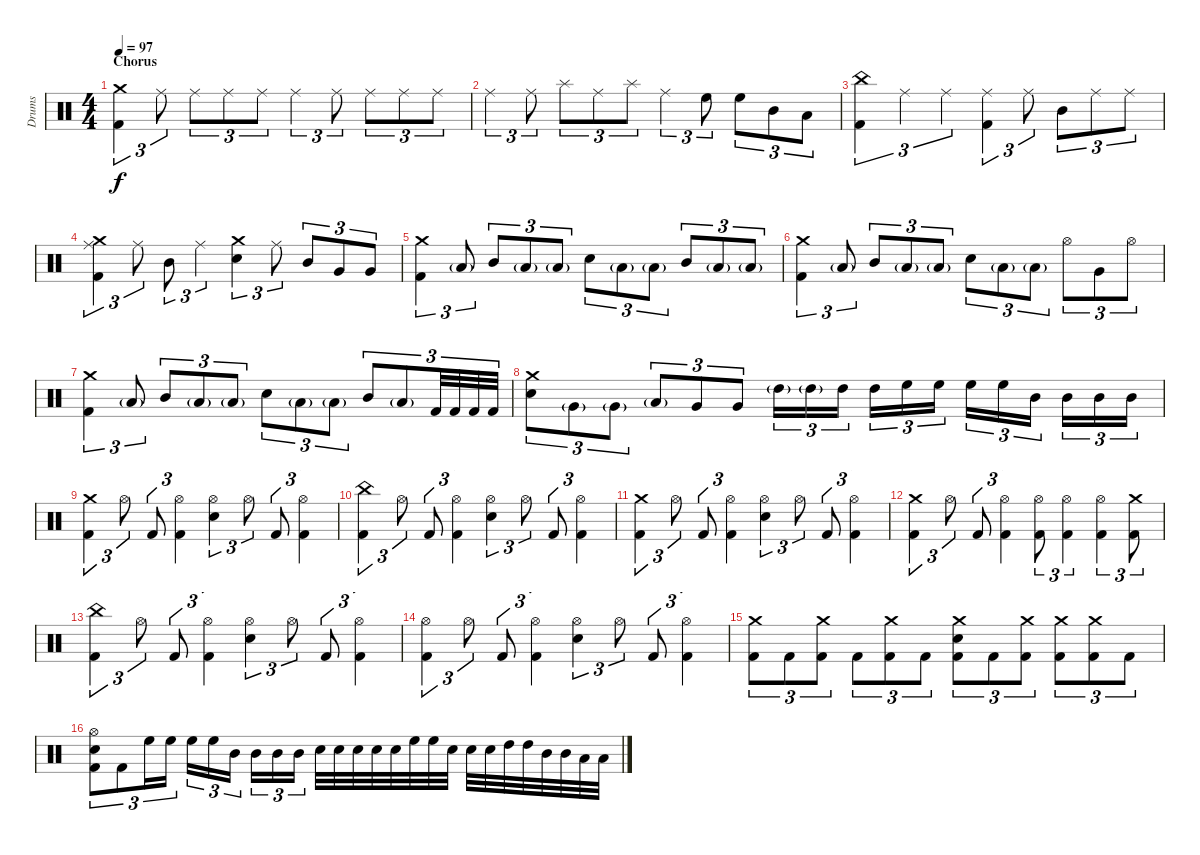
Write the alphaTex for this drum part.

\track ("Drums" "Drums") {instrument percussion}
\staff {score}
\articulation defaults
\ts (4 4)
\section ("" "Chorus")
\tempo 97
\clef neutral
\ks c
("Crash medium (hit)" "Kick (hit) 2").4{tu (3 2) dy f} "Ride (middle)".8{tu (3 2)} "Ride (middle)".8{tu (3 2)} "Ride (middle)".8{tu (3 2)} "Ride (middle)".8{tu (3 2)} "Ride (middle)".4{tu (3 2)} "Ride (middle)".8{tu (3 2)} "Ride (middle)".8{tu (3 2)} "Ride (middle)".8{tu (3 2)} "Ride (middle)".8{tu (3 2)} |
"Ride (middle)".4{tu (3 2)} "Ride (middle)".8{tu (3 2)} "Splash (hit)".8{tu (3 2)} "Ride (middle)".8{tu (3 2)} "Splash (hit)".8{tu (3 2)} "Ride (middle)".4{tu (3 2)} "High Floor Tom (hit)".8{tu (3 2)} "High Floor Tom (hit)".8{tu (3 2)} "Mid Tom (hit)".8{tu (3 2)} "Low Tom (hit)".8{tu (3 2)} |
("China (hit)" "Kick (hit) 2").4{tu (3 2)} "Ride (middle)".4{tu (3 2)} "Ride (middle)".4{tu (3 2)} ("Ride (middle)" "Kick (hit) 2").4{tu (3 2)} "Ride (middle)".8{tu (3 2)} "Mid Tom (hit)".8{tu (3 2)} "Ride (middle)".8{tu (3 2)} "Ride (middle)".8{tu (3 2)} |
("Crash medium (hit)" "Ride (middle)" "Kick (hit) 2").4{tu (3 2)} "Ride (middle)".8{tu (3 2)} "Mid Tom (hit)".8{tu (3 2)} "Ride (middle)".4{tu (3 2)} ("Crash medium (hit)" "Snare (hit) 2").4{tu (3 2)} "Ride (middle)".8{tu (3 2)} "Mid Tom (hit)".8{tu (3 2)} "Very Low Tom (hit)".8{tu (3 2)} "Very Low Tom (hit)".8{tu (3 2)} |
("Crash medium (hit)" "Kick (hit) 2").4{tu (3 2)} "Low Tom (hit)"{g}.8{tu (3 2)} "Mid Tom (hit)".8{tu (3 2)} "Low Tom (hit)"{g}.8{tu (3 2)} "Low Tom (hit)"{g}.8{tu (3 2)} "Snare (hit) 2".8{tu (3 2)} "Low Tom (hit)"{g}.8{tu (3 2)} "Low Tom (hit)"{g}.8{tu (3 2)} "Mid Tom (hit)".8{tu (3 2)} "Low Tom (hit)"{g}.8{tu (3 2)} "Low Tom (hit)"{g}.8{tu (3 2)} |
("Crash medium (hit)" "Kick (hit) 2").4{tu (3 2)} "Low Tom (hit)"{g}.8{tu (3 2)} "Mid Tom (hit)".8{tu (3 2)} "Low Tom (hit)"{g}.8{tu (3 2)} "Low Tom (hit)"{g}.8{tu (3 2)} "Snare (hit) 2".8{tu (3 2)} "Low Tom (hit)"{g}.8{tu (3 2)} "Low Tom (hit)"{g}.8{tu (3 2)} "Hi-Hat (open)".8{tu (3 2)} "Very Low Tom (hit)".8{tu (3 2)} "Hi-Hat (open)".8{tu (3 2)} |
("Crash medium (hit)" "Kick (hit) 2").4{tu (3 2)} "Low Tom (hit)"{g}.8{tu (3 2)} "Mid Tom (hit)".8{tu (3 2)} "Low Tom (hit)"{g}.8{tu (3 2)} "Low Tom (hit)"{g}.8{tu (3 2)} "Snare (hit) 2".8{tu (3 2)} "Low Tom (hit)"{g}.8{tu (3 2)} "Low Tom (hit)"{g}.8{tu (3 2)} "Mid Tom (hit)".8{tu (3 2)} "Low Tom (hit)"{g}.8{tu (3 2)} "Kick (hit) 2".32{tu (3 2)} "Kick (hit) 2".32{tu (3 2)} "Kick (hit) 2".32{tu (3 2)} "Kick (hit) 2".32{tu (3 2)} |
("Crash medium (hit)" "Snare (hit) 2").8{tu (3 2)} "Very Low Tom (hit)"{g}.8{tu (3 2)} "Very Low Tom (hit)"{g}.8{tu (3 2)} "Low Tom (hit)"{g}.8{tu (3 2)} "Very Low Tom (hit)".8{tu (3 2)} "Very Low Tom (hit)".8{tu (3 2)} "High Tom (hit)"{g}.16{tu (3 2)} "High Tom (hit)"{g}.16{tu (3 2)} "High Tom (hit)".16{tu (3 2)} "High Tom (hit)".16{tu (3 2)} "High Floor Tom (hit)".16{tu (3 2)} "High Floor Tom (hit)".16{tu (3 2)} "High Floor Tom (hit)".16{tu (3 2)} "High Floor Tom (hit)".16{tu (3 2)} "Mid Tom (hit)".16{tu (3 2)} "Mid Tom (hit)".16{tu (3 2)} "Mid Tom (hit)".16{tu (3 2)} "Mid Tom (hit)".16{tu (3 2)} |
("Crash medium (hit)" "Kick (hit) 2").4{tu (3 2)} "Hi-Hat (open)".8{tu (3 2)} "Kick (hit) 2".8{tu (3 2)} ("Hi-Hat (open)" "Kick (hit) 2").4{tu (3 2)} ("Hi-Hat (open)" "Snare (hit) 2").4{tu (3 2)} "Hi-Hat (open)".8{tu (3 2)} "Kick (hit) 2".8{tu (3 2)} ("Hi-Hat (open)" "Kick (hit) 2").4{tu (3 2)} |
("China (hit)" "Kick (hit) 2").4{tu (3 2)} "Hi-Hat (open)".8{tu (3 2)} "Kick (hit) 2".8{tu (3 2)} ("Hi-Hat (open)" "Kick (hit) 2").4{tu (3 2)} ("Hi-Hat (open)" "Snare (hit) 2").4{tu (3 2)} "Hi-Hat (open)".8{tu (3 2)} "Kick (hit) 2".8{tu (3 2)} ("Hi-Hat (open)" "Kick (hit) 2").4{tu (3 2)} |
("Crash medium (hit)" "Kick (hit) 2").4{tu (3 2)} "Hi-Hat (open)".8{tu (3 2)} "Kick (hit) 2".8{tu (3 2)} ("Hi-Hat (open)" "Kick (hit) 2").4{tu (3 2)} ("Hi-Hat (open)" "Snare (hit) 2").4{tu (3 2)} "Hi-Hat (open)".8{tu (3 2)} "Kick (hit) 2".8{tu (3 2)} ("Hi-Hat (open)" "Kick (hit) 2").4{tu (3 2)} |
("Crash medium (hit)" "Kick (hit) 2").4{tu (3 2)} "Hi-Hat (open)".8{tu (3 2)} "Kick (hit) 2".8{tu (3 2)} ("Hi-Hat (open)" "Kick (hit) 2").4{tu (3 2)} ("Hi-Hat (open)" "Kick (hit) 2").8{tu (3 2)} ("Hi-Hat (open)" "Kick (hit) 2").4{tu (3 2)} ("Hi-Hat (open)" "Kick (hit) 2").4{tu (3 2)} ("Crash medium (hit)" "Kick (hit) 2").8{tu (3 2)} |
("China (hit)" "Kick (hit) 2").4{tu (3 2)} "Hi-Hat (open)".8{tu (3 2)} "Kick (hit) 2".8{tu (3 2)} ("Hi-Hat (open)" "Kick (hit) 2").4{tu (3 2)} ("Hi-Hat (open)" "Snare (hit) 2").4{tu (3 2)} "Hi-Hat (open)".8{tu (3 2)} "Kick (hit) 2".8{tu (3 2)} ("Hi-Hat (open)" "Kick (hit) 2").4{tu (3 2)} |
("Hi-Hat (open)" "Kick (hit) 2").4{tu (3 2)} "Hi-Hat (open)".8{tu (3 2)} "Kick (hit) 2".8{tu (3 2)} ("Hi-Hat (open)" "Kick (hit) 2").4{tu (3 2)} ("Hi-Hat (open)" "Snare (hit) 2").4{tu (3 2)} "Hi-Hat (open)".8{tu (3 2)} "Kick (hit) 2".8{tu (3 2)} ("Hi-Hat (open)" "Kick (hit) 2").4{tu (3 2)} |
("Crash medium (hit)" "Kick (hit) 2").8{tu (3 2)} "Kick (hit) 2".8{tu (3 2)} ("Crash medium (hit)" "Kick (hit) 2").8{tu (3 2)} "Kick (hit) 2".8{tu (3 2)} ("Crash medium (hit)" "Kick (hit) 2").8{tu (3 2)} "Kick (hit) 2".8{tu (3 2)} ("Crash medium (hit)" "Snare (hit) 2" "Kick (hit) 2").8{tu (3 2)} "Kick (hit) 2".8{tu (3 2)} ("Crash medium (hit)" "Kick (hit) 2").8{tu (3 2)} ("Crash medium (hit)" "Kick (hit) 2").8{tu (3 2)} ("Crash medium (hit)" "Kick (hit) 2").8{tu (3 2)} "Kick (hit) 2".8{tu (3 2)} |
("Hi-Hat (open)" "Snare (hit) 2" "Kick (hit) 2").8{tu (3 2)} "Kick (hit) 2".8{tu (3 2)} "High Floor Tom (hit)".16{tu (3 2)} "High Floor Tom (hit)".16{tu (3 2)} "High Floor Tom (hit)".16{tu (3 2)} "High Floor Tom (hit)".16{tu (3 2)} "Mid Tom (hit)".16{tu (3 2)} "Mid Tom (hit)".16{tu (3 2)} "Mid Tom (hit)".16{tu (3 2)} "Mid Tom (hit)".16{tu (3 2)} "Snare (hit) 2".32 "Snare (hit) 2".32 "Snare (hit) 2".32 "Snare (hit) 2".32 "Snare (hit) 2".32 "High Floor Tom (hit)".32 "High Floor Tom (hit)".32 "Snare (hit) 2".32 "Snare (hit) 2".32 "Snare (hit) 2".32 "High Tom (hit)".32 "High Tom (hit)".32 "Mid Tom (hit)".32 "Mid Tom (hit)".32 "Low Tom (hit)".32 "Low Tom (hit)".32
